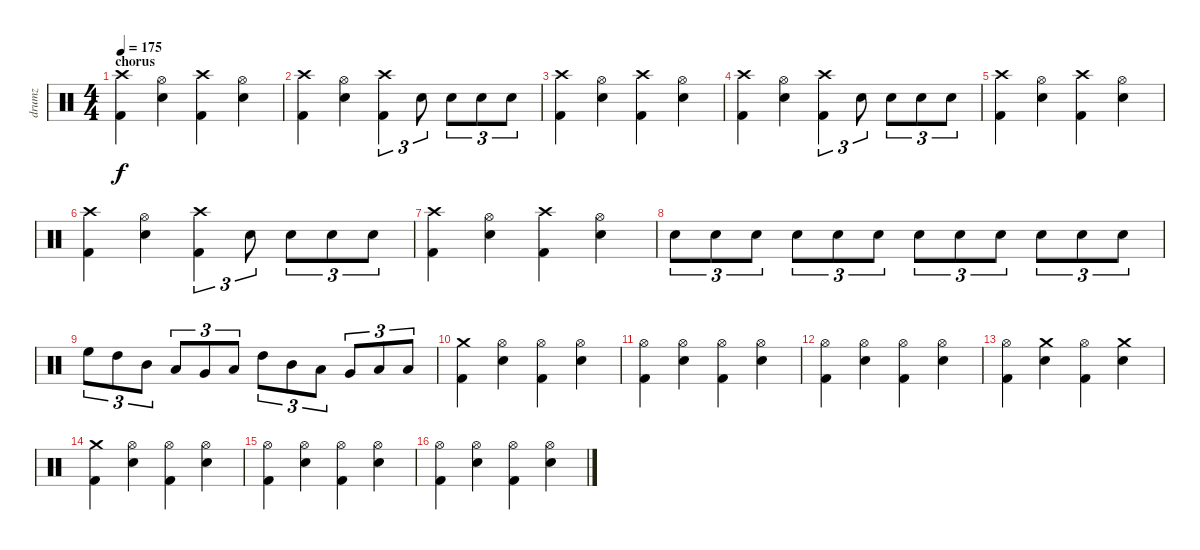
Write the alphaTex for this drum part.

\track ("drumz" "drumz") {instrument percussion}
\staff {score}
\articulation defaults
\ts (4 4)
\section ("" "chorus")
\tempo 175
\clef neutral
\ks c
("Crash high (hit)" "Kick (hit) 2").4{dy f} ("Hi-Hat (open)" "Electric Snare (hit)").4 ("Crash high (hit)" "Kick (hit) 2").4 ("Hi-Hat (open)" "Electric Snare (hit)").4 |
("Crash high (hit)" "Kick (hit) 2").4 ("Hi-Hat (open)" "Electric Snare (hit)").4 ("Crash high (hit)" "Kick (hit) 2").4{tu (3 2)} "Electric Snare (hit)".8{tu (3 2)} "Electric Snare (hit)".8{tu (3 2)} "Electric Snare (hit)".8{tu (3 2)} "Electric Snare (hit)".8{tu (3 2)} |
("Crash high (hit)" "Kick (hit) 2").4 ("Hi-Hat (open)" "Electric Snare (hit)").4 ("Crash high (hit)" "Kick (hit) 2").4 ("Hi-Hat (open)" "Electric Snare (hit)").4 |
("Crash high (hit)" "Kick (hit) 2").4 ("Hi-Hat (open)" "Electric Snare (hit)").4 ("Crash high (hit)" "Kick (hit) 2").4{tu (3 2)} "Electric Snare (hit)".8{tu (3 2)} "Electric Snare (hit)".8{tu (3 2)} "Electric Snare (hit)".8{tu (3 2)} "Electric Snare (hit)".8{tu (3 2)} |
("Crash high (hit)" "Kick (hit) 2").4 ("Hi-Hat (open)" "Electric Snare (hit)").4 ("Crash high (hit)" "Kick (hit) 2").4 ("Hi-Hat (open)" "Electric Snare (hit)").4 |
("Crash high (hit)" "Kick (hit) 2").4 ("Hi-Hat (open)" "Electric Snare (hit)").4 ("Crash high (hit)" "Kick (hit) 2").4{tu (3 2)} "Electric Snare (hit)".8{tu (3 2)} "Electric Snare (hit)".8{tu (3 2)} "Electric Snare (hit)".8{tu (3 2)} "Electric Snare (hit)".8{tu (3 2)} |
("Crash high (hit)" "Kick (hit) 2").4 ("Hi-Hat (open)" "Electric Snare (hit)").4 ("Crash high (hit)" "Kick (hit) 2").4 ("Hi-Hat (open)" "Electric Snare (hit)").4 |
"Electric Snare (hit)".8{tu (3 2)} "Electric Snare (hit)".8{tu (3 2)} "Electric Snare (hit)".8{tu (3 2)} "Electric Snare (hit)".8{tu (3 2)} "Electric Snare (hit)".8{tu (3 2)} "Electric Snare (hit)".8{tu (3 2)} "Electric Snare (hit)".8{tu (3 2)} "Electric Snare (hit)".8{tu (3 2)} "Electric Snare (hit)".8{tu (3 2)} "Electric Snare (hit)".8{tu (3 2)} "Electric Snare (hit)".8{tu (3 2)} "Electric Snare (hit)".8{tu (3 2)} |
"High Floor Tom (hit)".8{tu (3 2)} "High Tom (hit)".8{tu (3 2)} "Mid Tom (hit)".8{tu (3 2)} "Low Tom (hit)".8{tu (3 2)} "Very Low Tom (hit)".8{tu (3 2)} "Low Floor Tom (hit)".8{tu (3 2)} "High Tom (hit)".8{tu (3 2)} "Mid Tom (hit)".8{tu (3 2)} "Low Tom (hit)".8{tu (3 2)} "Very Low Tom (hit)".8{tu (3 2)} "Low Floor Tom (hit)".8{tu (3 2)} "Low Floor Tom (hit)".8{tu (3 2)} |
("Crash medium (hit)" "Kick (hit) 2").4 ("Hi-Hat (open)" "Electric Snare (hit)").4 ("Hi-Hat (open)" "Kick (hit) 2").4 ("Hi-Hat (open)" "Electric Snare (hit)").4 |
("Hi-Hat (open)" "Kick (hit) 2").4 ("Hi-Hat (open)" "Electric Snare (hit)").4 ("Hi-Hat (open)" "Kick (hit) 2").4 ("Hi-Hat (open)" "Electric Snare (hit)").4 |
("Hi-Hat (open)" "Kick (hit) 2").4 ("Hi-Hat (open)" "Electric Snare (hit)").4 ("Hi-Hat (open)" "Kick (hit) 2").4 ("Hi-Hat (open)" "Electric Snare (hit)").4 |
("Hi-Hat (open)" "Kick (hit) 2").4 ("Crash medium (hit)" "Electric Snare (hit)").4 ("Hi-Hat (open)" "Kick (hit) 2").4 ("Crash medium (hit)" "Electric Snare (hit)").4 |
("Crash medium (hit)" "Kick (hit) 2").4 ("Hi-Hat (open)" "Electric Snare (hit)").4 ("Hi-Hat (open)" "Kick (hit) 2").4 ("Hi-Hat (open)" "Electric Snare (hit)").4 |
("Hi-Hat (open)" "Kick (hit) 2").4 ("Hi-Hat (open)" "Electric Snare (hit)").4 ("Hi-Hat (open)" "Kick (hit) 2").4 ("Hi-Hat (open)" "Electric Snare (hit)").4 |
("Hi-Hat (open)" "Kick (hit) 2").4 ("Hi-Hat (open)" "Electric Snare (hit)").4 ("Hi-Hat (open)" "Kick (hit) 2").4 ("Hi-Hat (open)" "Electric Snare (hit)").4
